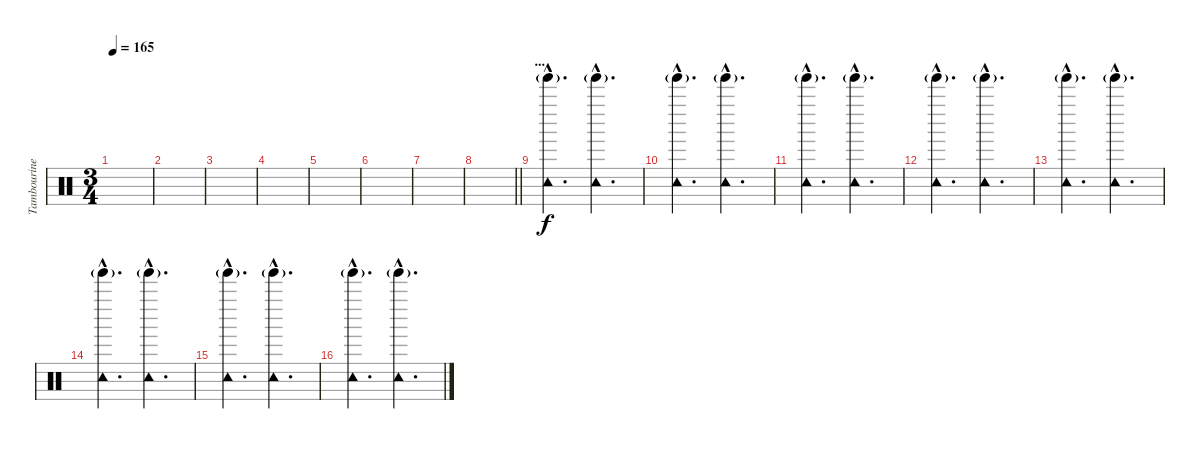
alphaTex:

\track ("Tambourine" "Tambourine") {instrument percussion}
\staff {score}
\articulation defaults
\ts (3 4)
\tempo 165
\clef neutral
\ks c
|
|
|
|
|
|
|
\barLineRight lightlight
|
\section ("" "...")
("Tambourine (hit)"{hac} "Tinkle Bell (hit)"{g}).4{d} ("Tambourine (hit)"{hac} "Tinkle Bell (hit)"{g}).4{d} |
("Tambourine (hit)"{hac} "Tinkle Bell (hit)"{g}).4{d} ("Tambourine (hit)"{hac} "Tinkle Bell (hit)"{g}).4{d} |
("Tambourine (hit)"{hac} "Tinkle Bell (hit)"{g}).4{d} ("Tambourine (hit)"{hac} "Tinkle Bell (hit)"{g}).4{d} |
("Tambourine (hit)"{hac} "Tinkle Bell (hit)"{g}).4{d} ("Tambourine (hit)"{hac} "Tinkle Bell (hit)"{g}).4{d} |
("Tambourine (hit)"{hac} "Tinkle Bell (hit)"{g}).4{d} ("Tambourine (hit)"{hac} "Tinkle Bell (hit)"{g}).4{d} |
("Tambourine (hit)"{hac} "Tinkle Bell (hit)"{g}).4{d} ("Tambourine (hit)"{hac} "Tinkle Bell (hit)"{g}).4{d} |
("Tambourine (hit)"{hac} "Tinkle Bell (hit)"{g}).4{d} ("Tambourine (hit)"{hac} "Tinkle Bell (hit)"{g}).4{d} |
("Tambourine (hit)"{hac} "Tinkle Bell (hit)"{g}).4{d} ("Tambourine (hit)"{hac} "Tinkle Bell (hit)"{g}).4{d}
